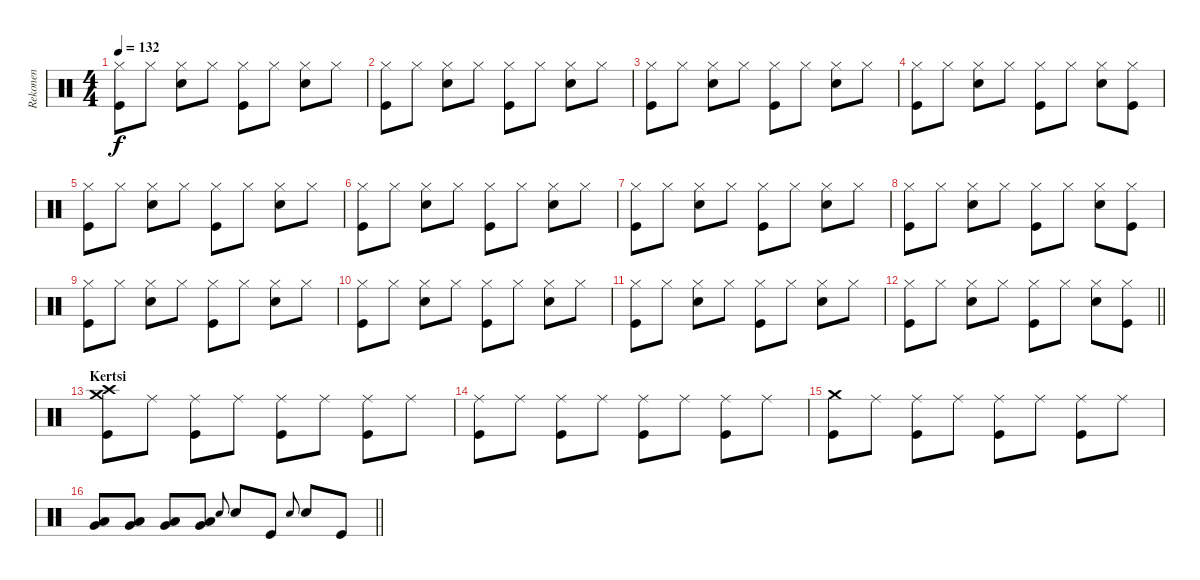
\track ("Rekonen" "Rekonen") {instrument percussion}
\staff {score}
\articulation defaults
\ts (4 4)
\tempo 132
\clef neutral
\ks c
("Kick (hit)" "Hi-Hat (closed)").8{dy f} "Hi-Hat (closed)".8 ("Electric Snare (hit)" "Hi-Hat (closed)").8 "Hi-Hat (closed)".8 ("Kick (hit)" "Hi-Hat (closed)").8 "Hi-Hat (closed)".8 ("Electric Snare (hit)" "Hi-Hat (closed)").8 "Hi-Hat (closed)".8 |
("Kick (hit)" "Hi-Hat (closed)").8 "Hi-Hat (closed)".8 ("Electric Snare (hit)" "Hi-Hat (closed)").8 "Hi-Hat (closed)".8 ("Kick (hit)" "Hi-Hat (closed)").8 "Hi-Hat (closed)".8 ("Electric Snare (hit)" "Hi-Hat (closed)").8 "Hi-Hat (closed)".8 |
("Kick (hit)" "Hi-Hat (closed)").8 "Hi-Hat (closed)".8 ("Electric Snare (hit)" "Hi-Hat (closed)").8 "Hi-Hat (closed)".8 ("Kick (hit)" "Hi-Hat (closed)").8 "Hi-Hat (closed)".8 ("Electric Snare (hit)" "Hi-Hat (closed)").8 "Hi-Hat (closed)".8 |
("Kick (hit)" "Hi-Hat (closed)").8 "Hi-Hat (closed)".8 ("Electric Snare (hit)" "Hi-Hat (closed)").8 "Hi-Hat (closed)".8 ("Kick (hit)" "Hi-Hat (closed)").8 "Hi-Hat (closed)".8 ("Electric Snare (hit)" "Hi-Hat (closed)").8 ("Kick (hit)" "Hi-Hat (closed)").8 |
("Kick (hit)" "Hi-Hat (closed)").8 "Hi-Hat (closed)".8 ("Electric Snare (hit)" "Hi-Hat (closed)").8 "Hi-Hat (closed)".8 ("Kick (hit)" "Hi-Hat (closed)").8 "Hi-Hat (closed)".8 ("Electric Snare (hit)" "Hi-Hat (closed)").8 "Hi-Hat (closed)".8 |
("Kick (hit)" "Hi-Hat (closed)").8 "Hi-Hat (closed)".8 ("Electric Snare (hit)" "Hi-Hat (closed)").8 "Hi-Hat (closed)".8 ("Kick (hit)" "Hi-Hat (closed)").8 "Hi-Hat (closed)".8 ("Electric Snare (hit)" "Hi-Hat (closed)").8 "Hi-Hat (closed)".8 |
("Kick (hit)" "Hi-Hat (closed)").8 "Hi-Hat (closed)".8 ("Electric Snare (hit)" "Hi-Hat (closed)").8 "Hi-Hat (closed)".8 ("Kick (hit)" "Hi-Hat (closed)").8 "Hi-Hat (closed)".8 ("Electric Snare (hit)" "Hi-Hat (closed)").8 "Hi-Hat (closed)".8 |
("Kick (hit)" "Hi-Hat (closed)").8 "Hi-Hat (closed)".8 ("Electric Snare (hit)" "Hi-Hat (closed)").8 "Hi-Hat (closed)".8 ("Kick (hit)" "Hi-Hat (closed)").8 "Hi-Hat (closed)".8 ("Electric Snare (hit)" "Hi-Hat (closed)").8 ("Kick (hit)" "Hi-Hat (closed)").8 |
("Kick (hit)" "Hi-Hat (closed)").8 "Hi-Hat (closed)".8 ("Electric Snare (hit)" "Hi-Hat (closed)").8 "Hi-Hat (closed)".8 ("Kick (hit)" "Hi-Hat (closed)").8 "Hi-Hat (closed)".8 ("Electric Snare (hit)" "Hi-Hat (closed)").8 "Hi-Hat (closed)".8 |
("Kick (hit)" "Hi-Hat (closed)").8 "Hi-Hat (closed)".8 ("Electric Snare (hit)" "Hi-Hat (closed)").8 "Hi-Hat (closed)".8 ("Kick (hit)" "Hi-Hat (closed)").8 "Hi-Hat (closed)".8 ("Electric Snare (hit)" "Hi-Hat (closed)").8 "Hi-Hat (closed)".8 |
("Kick (hit)" "Hi-Hat (closed)").8 "Hi-Hat (closed)".8 ("Electric Snare (hit)" "Hi-Hat (closed)").8 "Hi-Hat (closed)".8 ("Kick (hit)" "Hi-Hat (closed)").8 "Hi-Hat (closed)".8 ("Electric Snare (hit)" "Hi-Hat (closed)").8 "Hi-Hat (closed)".8 |
\barLineRight lightlight
("Kick (hit)" "Hi-Hat (closed)").8 "Hi-Hat (closed)".8 ("Electric Snare (hit)" "Hi-Hat (closed)").8 "Hi-Hat (closed)".8 ("Kick (hit)" "Hi-Hat (closed)").8 "Hi-Hat (closed)".8 ("Electric Snare (hit)" "Hi-Hat (closed)").8 ("Kick (hit)" "Hi-Hat (closed)").8 |
\section ("" "Kertsi")
("Kick (hit)" "Crash high (hit)" "Crash medium (hit)").8 "Ride (middle)".8 ("Kick (hit)" "Ride (middle)").8 "Ride (middle)".8 ("Kick (hit)" "Ride (middle)").8 "Ride (middle)".8 ("Kick (hit)" "Ride (middle)").8 "Ride (middle)".8 |
("Kick (hit)" "Ride (middle)").8 "Ride (middle)".8 ("Kick (hit)" "Ride (middle)").8 "Ride (middle)".8 ("Kick (hit)" "Ride (middle)").8 "Ride (middle)".8 ("Kick (hit)" "Ride (middle)").8 "Ride (middle)".8 |
("Kick (hit)" "Crash medium (hit)").8 "Ride (middle)".8 ("Kick (hit)" "Ride (middle)").8 "Ride (middle)".8 ("Kick (hit)" "Ride (middle)").8 "Ride (middle)".8 ("Kick (hit)" "Ride (middle)").8 "Ride (middle)".8 |
\barLineRight lightlight
("Very Low Tom (hit)" "Low Tom (hit)").8 ("Very Low Tom (hit)" "Low Tom (hit)").8 ("Very Low Tom (hit)" "Low Tom (hit)").8 ("Very Low Tom (hit)" "Low Tom (hit)").8 "Electric Snare (hit)".8{gr onbeat} "Electric Snare (hit)".8 "Kick (hit)".8 "Electric Snare (hit)".8{gr onbeat} "Electric Snare (hit)".8 "Kick (hit)".8
